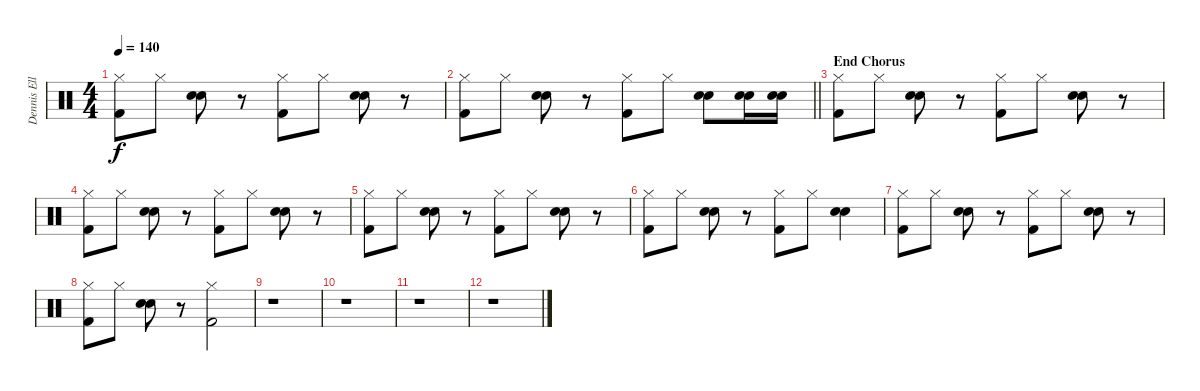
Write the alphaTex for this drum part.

\track ("Dennis Elliott (Drums)" "Dennis Ell") {instrument percussion}
\staff {score}
\articulation defaults
\ts (4 4)
\tempo 140
\clef neutral
\ks c
("Hi-Hat (closed)" "Kick (hit) 2").8{dy f} "Hi-Hat (closed)".8 ("Electric Snare (hit)" "Snare (hit) 2").8 r.8 ("Hi-Hat (closed)" "Kick (hit) 2").8 "Hi-Hat (closed)".8 ("Electric Snare (hit)" "Snare (hit) 2").8 r.8 |
\barLineRight lightlight
("Hi-Hat (closed)" "Kick (hit) 2").8 "Hi-Hat (closed)".8 ("Electric Snare (hit)" "Snare (hit) 2").8 r.8 ("Hi-Hat (closed)" "Kick (hit) 2").8 "Hi-Hat (closed)".8 ("Electric Snare (hit)" "Snare (hit) 2").8 ("Electric Snare (hit)" "Snare (hit) 2").16 ("Electric Snare (hit)" "Snare (hit) 2").16 |
\section ("" "End Chorus")
("Hi-Hat (closed)" "Kick (hit) 2").8 "Hi-Hat (closed)".8 ("Electric Snare (hit)" "Snare (hit) 2").8 r.8 ("Hi-Hat (closed)" "Kick (hit) 2").8 "Hi-Hat (closed)".8 ("Electric Snare (hit)" "Snare (hit) 2").8 r.8 |
("Hi-Hat (closed)" "Kick (hit) 2").8 "Hi-Hat (closed)".8 ("Electric Snare (hit)" "Snare (hit) 2").8 r.8 ("Hi-Hat (closed)" "Kick (hit) 2").8 "Hi-Hat (closed)".8 ("Electric Snare (hit)" "Snare (hit) 2").8 r.8 |
("Hi-Hat (closed)" "Kick (hit) 2").8 "Hi-Hat (closed)".8 ("Electric Snare (hit)" "Snare (hit) 2").8 r.8 ("Hi-Hat (closed)" "Kick (hit) 2").8 "Hi-Hat (closed)".8 ("Electric Snare (hit)" "Snare (hit) 2").8 r.8 |
("Hi-Hat (closed)" "Kick (hit) 2").8 "Hi-Hat (closed)".8 ("Electric Snare (hit)" "Snare (hit) 2").8 r.8 ("Hi-Hat (closed)" "Kick (hit) 2").8 "Hi-Hat (closed)".8 ("Electric Snare (hit)" "Snare (hit) 2").4 |
("Hi-Hat (closed)" "Kick (hit) 2").8 "Hi-Hat (closed)".8 ("Electric Snare (hit)" "Snare (hit) 2").8 r.8 ("Hi-Hat (closed)" "Kick (hit) 2").8 "Hi-Hat (closed)".8 ("Electric Snare (hit)" "Snare (hit) 2").8 r.8 |
("Hi-Hat (closed)" "Kick (hit) 2").8 "Hi-Hat (closed)".8 ("Electric Snare (hit)" "Snare (hit) 2").8 r.8 ("Hi-Hat (closed)" "Kick (hit) 2").2 |
r.1 |
r.1 |
r.1 |
r.1
